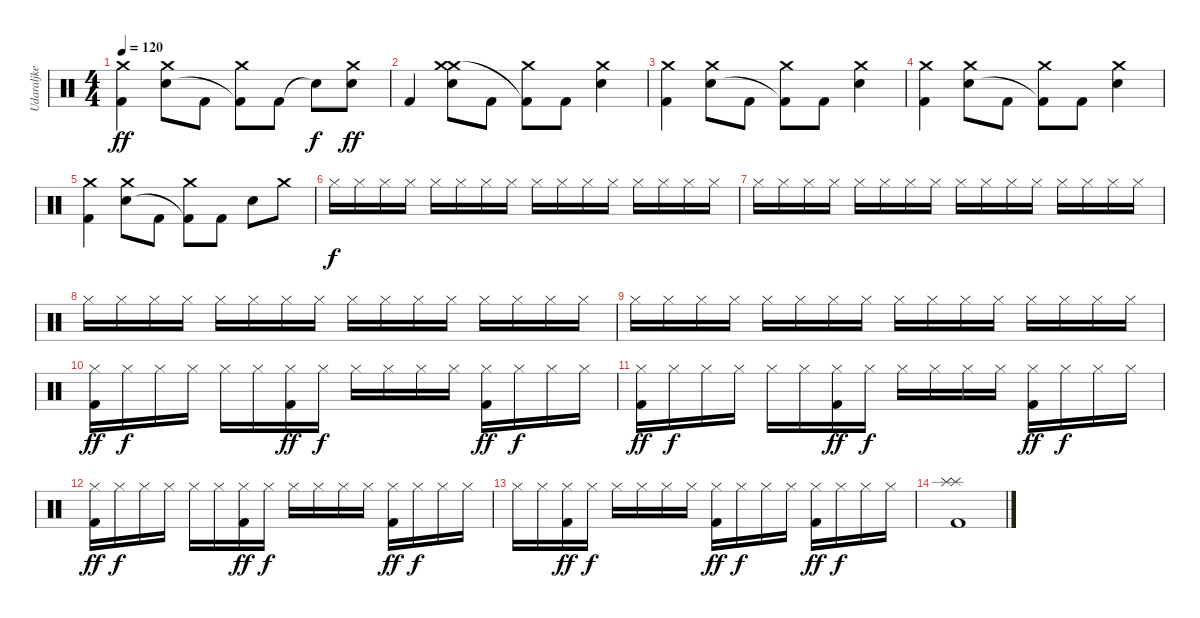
\track ("Udaraljke" "Udaraljke") {instrument percussion}
\staff {score}
\articulation defaults
\ts (4 4)
\tempo 120
\clef neutral
\ks c
("Crash medium (hit)" "Kick (hit) 2").4{dy ff} ("Crash medium (hit)" "Electric Snare (hit)").8 "Kick (hit) 2".8 ("Crash medium (hit)" "Kick (hit) 2"{t}).8 "Kick (hit) 2".8 "Snare (hit)"{t}.8{dy f} ("Crash medium (hit)" "Electric Snare (hit)").8{dy ff} |
"Kick (hit) 2".4 ("Crash medium (hit)" "Crash medium (hit)" "Electric Snare (hit)").8 "Kick (hit) 2".8 ("Crash medium (hit)" "Kick (hit) 2"{t}).8 "Kick (hit) 2".8 ("Crash medium (hit)" "Electric Snare (hit)").4 |
("Crash medium (hit)" "Kick (hit) 2").4 ("Crash medium (hit)" "Electric Snare (hit)").8 "Kick (hit) 2".8 ("Crash medium (hit)" "Kick (hit) 2"{t}).8 "Kick (hit) 2".8 ("Crash medium (hit)" "Electric Snare (hit)").4 |
("Crash medium (hit)" "Kick (hit) 2").4 ("Crash medium (hit)" "Electric Snare (hit)").8 "Kick (hit) 2".8 ("Crash medium (hit)" "Kick (hit) 2"{t}).8 "Kick (hit) 2".8 ("Crash medium (hit)" "Electric Snare (hit)").4 |
("Crash medium (hit)" "Kick (hit) 2").4 ("Crash medium (hit)" "Electric Snare (hit)").8 "Kick (hit) 2".8 ("Crash medium (hit)" "Kick (hit) 2"{t}).8 "Kick (hit) 2".8 "Electric Snare (hit)".8 "Crash medium (hit)".8 |
"Hi-Hat (closed)".16{dy f} "Hi-Hat (closed)".16 "Hi-Hat (closed)".16 "Hi-Hat (closed)".16 "Hi-Hat (closed)".16 "Hi-Hat (closed)".16 "Hi-Hat (closed)".16 "Hi-Hat (closed)".16 "Hi-Hat (closed)".16 "Hi-Hat (closed)".16 "Hi-Hat (closed)".16 "Hi-Hat (closed)".16 "Hi-Hat (closed)".16 "Hi-Hat (closed)".16 "Hi-Hat (closed)".16 "Hi-Hat (closed)".16 |
"Hi-Hat (closed)".16 "Hi-Hat (closed)".16 "Hi-Hat (closed)".16 "Hi-Hat (closed)".16 "Hi-Hat (closed)".16 "Hi-Hat (closed)".16 "Hi-Hat (closed)".16 "Hi-Hat (closed)".16 "Hi-Hat (closed)".16 "Hi-Hat (closed)".16 "Hi-Hat (closed)".16 "Hi-Hat (closed)".16 "Hi-Hat (closed)".16 "Hi-Hat (closed)".16 "Hi-Hat (closed)".16 "Hi-Hat (closed)".16 |
"Hi-Hat (closed)".16 "Hi-Hat (closed)".16 "Hi-Hat (closed)".16 "Hi-Hat (closed)".16 "Hi-Hat (closed)".16 "Hi-Hat (closed)".16 "Hi-Hat (closed)".16 "Hi-Hat (closed)".16 "Hi-Hat (closed)".16 "Hi-Hat (closed)".16 "Hi-Hat (closed)".16 "Hi-Hat (closed)".16 "Hi-Hat (closed)".16 "Hi-Hat (closed)".16 "Hi-Hat (closed)".16 "Hi-Hat (closed)".16 |
"Hi-Hat (closed)".16 "Hi-Hat (closed)".16 "Hi-Hat (closed)".16 "Hi-Hat (closed)".16 "Hi-Hat (closed)".16 "Hi-Hat (closed)".16 "Hi-Hat (closed)".16 "Hi-Hat (closed)".16 "Hi-Hat (closed)".16 "Hi-Hat (closed)".16 "Hi-Hat (closed)".16 "Hi-Hat (closed)".16 "Hi-Hat (closed)".16 "Hi-Hat (closed)".16 "Hi-Hat (closed)".16 "Hi-Hat (closed)".16 |
("Hi-Hat (closed)" "Kick (hit) 2").16{dy ff} "Hi-Hat (closed)".16{dy f} "Hi-Hat (closed)".16 "Hi-Hat (closed)".16 "Hi-Hat (closed)".16 "Hi-Hat (closed)".16 ("Hi-Hat (closed)" "Kick (hit) 2").16{dy ff} "Hi-Hat (closed)".16{dy f} "Hi-Hat (closed)".16 "Hi-Hat (closed)".16 "Hi-Hat (closed)".16 "Hi-Hat (closed)".16 ("Hi-Hat (closed)" "Kick (hit) 2").16{dy ff} "Hi-Hat (closed)".16{dy f} "Hi-Hat (closed)".16 "Hi-Hat (closed)".16 |
("Hi-Hat (closed)" "Kick (hit) 2").16{dy ff} "Hi-Hat (closed)".16{dy f} "Hi-Hat (closed)".16 "Hi-Hat (closed)".16 "Hi-Hat (closed)".16 "Hi-Hat (closed)".16 ("Hi-Hat (closed)" "Kick (hit) 2").16{dy ff} "Hi-Hat (closed)".16{dy f} "Hi-Hat (closed)".16 "Hi-Hat (closed)".16 "Hi-Hat (closed)".16 "Hi-Hat (closed)".16 ("Hi-Hat (closed)" "Kick (hit) 2").16{dy ff} "Hi-Hat (closed)".16{dy f} "Hi-Hat (closed)".16 "Hi-Hat (closed)".16 |
("Hi-Hat (closed)" "Kick (hit) 2").16{dy ff} "Hi-Hat (closed)".16{dy f} "Hi-Hat (closed)".16 "Hi-Hat (closed)".16 "Hi-Hat (closed)".16 "Hi-Hat (closed)".16 ("Hi-Hat (closed)" "Kick (hit) 2").16{dy ff} "Hi-Hat (closed)".16{dy f} "Hi-Hat (closed)".16 "Hi-Hat (closed)".16 "Hi-Hat (closed)".16 "Hi-Hat (closed)".16 ("Hi-Hat (closed)" "Kick (hit) 2").16{dy ff} "Hi-Hat (closed)".16{dy f} "Hi-Hat (closed)".16 "Hi-Hat (closed)".16 |
"Hi-Hat (closed)".16 "Hi-Hat (closed)".16 ("Hi-Hat (closed)" "Kick (hit) 2").16{dy ff} "Hi-Hat (closed)".16{dy f} "Hi-Hat (closed)".16 "Hi-Hat (closed)".16 "Hi-Hat (closed)".16 "Hi-Hat (closed)".16 ("Hi-Hat (closed)" "Kick (hit) 2").16{dy ff} "Hi-Hat (closed)".16{dy f} "Hi-Hat (closed)".16 "Hi-Hat (closed)".16 ("Hi-Hat (closed)" "Kick (hit) 2").16{dy ff} "Hi-Hat (closed)".16{dy f} "Hi-Hat (closed)".16 "Hi-Hat (closed)".16 |
("Splash (hit)" "Splash (hit)" "Kick (hit) 2").1
